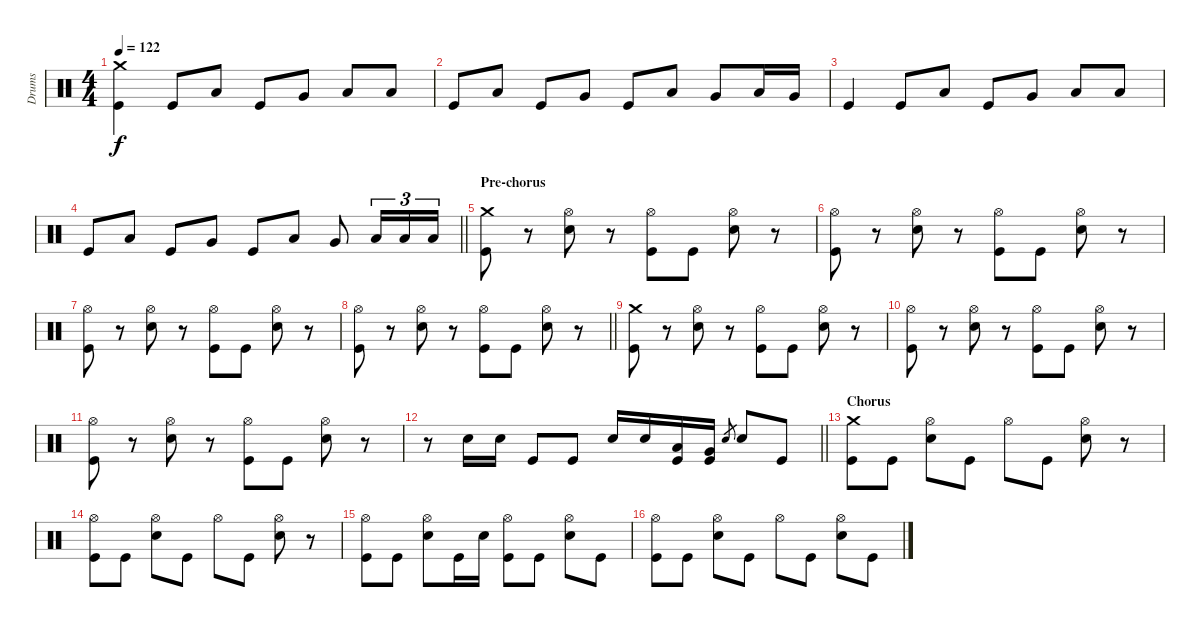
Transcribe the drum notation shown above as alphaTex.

\track ("Drums" "Drums") {instrument percussion}
\staff {score}
\articulation defaults
\ts (4 4)
\tempo 122
\clef neutral
\ks c
("Crash medium (hit)" "Kick (hit)").4{dy f} "Kick (hit)".8 "Low Tom (hit)".8 "Kick (hit)".8 "Very Low Tom (hit)".8 "Low Floor Tom (hit)".8 "Low Tom (hit)".8 |
"Kick (hit)".8 "Low Tom (hit)".8 "Kick (hit)".8 "Very Low Tom (hit)".8 "Kick (hit)".8 "Low Floor Tom (hit)".8 "Very Low Tom (hit)".8 "Low Tom (hit)".16 "Very Low Tom (hit)".16 |
"Kick (hit)".4 "Kick (hit)".8 "Low Tom (hit)".8 "Kick (hit)".8 "Very Low Tom (hit)".8 "Low Floor Tom (hit)".8 "Low Tom (hit)".8 |
\barLineRight lightlight "Kick (hit)".8 "Low Tom (hit)".8 "Kick (hit)".8 "Very Low Tom (hit)".8 "Kick (hit)".8 "Low Floor Tom (hit)".8 "Very Low Tom (hit)".8 "Low Tom (hit)".16{tu (3 2)} "Low Tom (hit)".16{tu (3 2)} "Low Tom (hit)".16{tu (3 2)}
|
\section ("" "Pre-chorus")
("Crash medium (hit)" "Kick (hit)").8 r.8 ("Hi-Hat (open)" "Electric Snare (hit)").8 r.8 ("Hi-Hat (open)" "Kick (hit)").8 "Kick (hit)".8 ("Hi-Hat (open)" "Electric Snare (hit)").8 r.8 |
("Hi-Hat (open)" "Kick (hit)").8 r.8 ("Hi-Hat (open)" "Electric Snare (hit)").8 r.8 ("Hi-Hat (open)" "Kick (hit)").8 "Kick (hit)".8 ("Hi-Hat (open)" "Electric Snare (hit)").8 r.8 |
("Hi-Hat (open)" "Kick (hit)").8 r.8 ("Hi-Hat (open)" "Electric Snare (hit)").8 r.8 ("Hi-Hat (open)" "Kick (hit)").8 "Kick (hit)".8 ("Hi-Hat (open)" "Electric Snare (hit)").8 r.8 |
\barLineRight lightlight
("Hi-Hat (open)" "Kick (hit)").8 r.8 ("Hi-Hat (open)" "Electric Snare (hit)").8 r.8 ("Hi-Hat (open)" "Kick (hit)").8 "Kick (hit)".8 ("Hi-Hat (open)" "Electric Snare (hit)").8 r.8 |
("Crash medium (hit)" "Kick (hit)").8 r.8 ("Hi-Hat (open)" "Electric Snare (hit)").8 r.8 ("Hi-Hat (open)" "Kick (hit)").8 "Kick (hit)".8 ("Hi-Hat (open)" "Electric Snare (hit)").8 r.8 |
("Hi-Hat (open)" "Kick (hit)").8 r.8 ("Hi-Hat (open)" "Electric Snare (hit)").8 r.8 ("Hi-Hat (open)" "Kick (hit)").8 "Kick (hit)".8 ("Hi-Hat (open)" "Electric Snare (hit)").8 r.8 |
("Hi-Hat (open)" "Kick (hit)").8 r.8 ("Hi-Hat (open)" "Electric Snare (hit)").8 r.8 ("Hi-Hat (open)" "Kick (hit)").8 "Kick (hit)".8 ("Hi-Hat (open)" "Electric Snare (hit)").8 r.8 |
\barLineRight lightlight
r.8 "Electric Snare (hit)".16 "Electric Snare (hit)".16 "Kick (hit)".8 "Kick (hit)".8 "Electric Snare (hit)".16 "Electric Snare (hit)".16 ("Low Tom (hit)" "Kick (hit)").16 ("Very Low Tom (hit)" "Kick (hit)").16 "Electric Snare (hit)".8{gr} "Electric Snare (hit)".8 "Kick (hit)".8 |
\section ("" "Chorus")
("Crash medium (hit)" "Kick (hit)").8 "Kick (hit)".8 ("Hi-Hat (open)" "Electric Snare (hit)").8 "Kick (hit)".8 "Hi-Hat (open)".8 "Kick (hit)".8 ("Hi-Hat (open)" "Electric Snare (hit)").8 r.8 |
("Hi-Hat (open)" "Kick (hit)").8 "Kick (hit)".8 ("Hi-Hat (open)" "Electric Snare (hit)").8 "Kick (hit)".8 "Hi-Hat (open)".8 "Kick (hit)".8 ("Hi-Hat (open)" "Electric Snare (hit)").8 r.8 |
("Hi-Hat (open)" "Kick (hit)").8 "Kick (hit)".8 ("Hi-Hat (open)" "Electric Snare (hit)").8 "Kick (hit)".16 "Electric Snare (hit)".16 ("Hi-Hat (open)" "Kick (hit)").8 "Kick (hit)".8 ("Hi-Hat (open)" "Electric Snare (hit)").8 "Kick (hit)".8 |
("Hi-Hat (open)" "Kick (hit)").8 "Kick (hit)".8 ("Hi-Hat (open)" "Electric Snare (hit)").8 "Kick (hit)".8 "Hi-Hat (open)".8 "Kick (hit)".8 ("Hi-Hat (open)" "Electric Snare (hit)").8 "Kick (hit)".8
